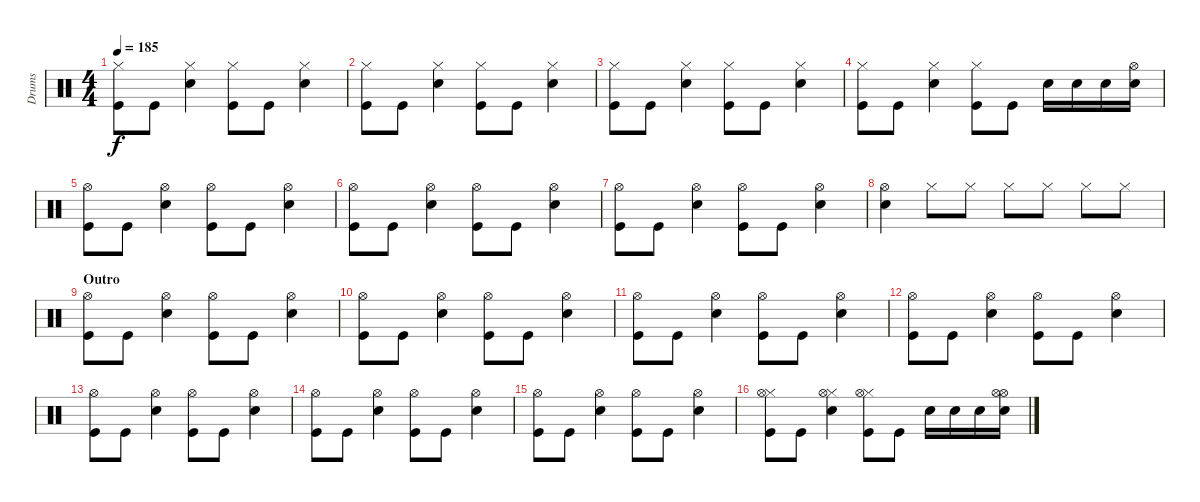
\track ("Drums" "Drums") {instrument percussion}
\staff {score}
\articulation defaults
\ts (4 4)
\tempo 185
\clef neutral
\ks c
("Kick (hit)" "Hi-Hat (closed)").8{dy f} "Kick (hit)".8 ("Electric Snare (hit)" "Hi-Hat (closed)").4 ("Kick (hit)" "Hi-Hat (closed)").8 "Kick (hit)".8 ("Electric Snare (hit)" "Hi-Hat (closed)").4 |
("Kick (hit)" "Hi-Hat (closed)").8 "Kick (hit)".8 ("Electric Snare (hit)" "Hi-Hat (closed)").4 ("Kick (hit)" "Hi-Hat (closed)").8 "Kick (hit)".8 ("Electric Snare (hit)" "Hi-Hat (closed)").4 |
("Kick (hit)" "Hi-Hat (closed)").8 "Kick (hit)".8 ("Electric Snare (hit)" "Hi-Hat (closed)").4 ("Kick (hit)" "Hi-Hat (closed)").8 "Kick (hit)".8 ("Electric Snare (hit)" "Hi-Hat (closed)").4 |
("Kick (hit)" "Hi-Hat (closed)").8 "Kick (hit)".8 ("Electric Snare (hit)" "Hi-Hat (closed)").4 ("Kick (hit)" "Hi-Hat (closed)").8 "Kick (hit)".8 "Electric Snare (hit)".16 "Electric Snare (hit)".16 "Electric Snare (hit)".16 ("Electric Snare (hit)" "Hi-Hat (open)").16 |
("Kick (hit)" "Hi-Hat (open)").8 "Kick (hit)".8 ("Electric Snare (hit)" "Hi-Hat (open)").4 ("Kick (hit)" "Hi-Hat (open)").8 "Kick (hit)".8 ("Electric Snare (hit)" "Hi-Hat (open)").4 |
("Kick (hit)" "Hi-Hat (open)").8 "Kick (hit)".8 ("Electric Snare (hit)" "Hi-Hat (open)").4 ("Kick (hit)" "Hi-Hat (open)").8 "Kick (hit)".8 ("Electric Snare (hit)" "Hi-Hat (open)").4 |
("Kick (hit)" "Hi-Hat (open)").8 "Kick (hit)".8 ("Electric Snare (hit)" "Hi-Hat (open)").4 ("Kick (hit)" "Hi-Hat (open)").8 "Kick (hit)".8 ("Electric Snare (hit)" "Hi-Hat (open)").4 |
("Electric Snare (hit)" "Hi-Hat (open)").4 "Hi-Hat (closed)".8 "Hi-Hat (closed)".8 "Hi-Hat (closed)".8 "Hi-Hat (closed)".8 "Hi-Hat (closed)".8 "Hi-Hat (closed)".8 |
\section ("" "Outro")
("Kick (hit)" "Hi-Hat (open)").8 "Kick (hit)".8 ("Electric Snare (hit)" "Hi-Hat (open)").4 ("Kick (hit)" "Hi-Hat (open)").8 "Kick (hit)".8 ("Electric Snare (hit)" "Hi-Hat (open)").4 |
("Kick (hit)" "Hi-Hat (open)").8 "Kick (hit)".8 ("Electric Snare (hit)" "Hi-Hat (open)").4 ("Kick (hit)" "Hi-Hat (open)").8 "Kick (hit)".8 ("Electric Snare (hit)" "Hi-Hat (open)").4 |
("Kick (hit)" "Hi-Hat (open)").8 "Kick (hit)".8 ("Electric Snare (hit)" "Hi-Hat (open)").4 ("Kick (hit)" "Hi-Hat (open)").8 "Kick (hit)".8 ("Electric Snare (hit)" "Hi-Hat (open)").4 |
("Kick (hit)" "Hi-Hat (open)").8 "Kick (hit)".8 ("Electric Snare (hit)" "Hi-Hat (open)").4 ("Kick (hit)" "Hi-Hat (open)").8 "Kick (hit)".8 ("Electric Snare (hit)" "Hi-Hat (open)").4 |
("Kick (hit)" "Hi-Hat (open)").8 "Kick (hit)".8 ("Electric Snare (hit)" "Hi-Hat (open)").4 ("Kick (hit)" "Hi-Hat (open)").8 "Kick (hit)".8 ("Electric Snare (hit)" "Hi-Hat (open)").4 |
("Kick (hit)" "Hi-Hat (open)").8 "Kick (hit)".8 ("Electric Snare (hit)" "Hi-Hat (open)").4 ("Kick (hit)" "Hi-Hat (open)").8 "Kick (hit)".8 ("Electric Snare (hit)" "Hi-Hat (open)").4 |
("Kick (hit)" "Hi-Hat (open)").8 "Kick (hit)".8 ("Electric Snare (hit)" "Hi-Hat (open)").4 ("Kick (hit)" "Hi-Hat (open)").8 "Kick (hit)".8 ("Electric Snare (hit)" "Hi-Hat (open)").4 |
("Kick (hit)" "Hi-Hat (closed)" "Hi-Hat (open)").8 "Kick (hit)".8 ("Electric Snare (hit)" "Hi-Hat (closed)" "Hi-Hat (open)").4 ("Kick (hit)" "Hi-Hat (closed)" "Hi-Hat (open)").8 "Kick (hit)".8 "Electric Snare (hit)".16 "Electric Snare (hit)".16 "Electric Snare (hit)".16 ("Electric Snare (hit)" "Hi-Hat (open)" "Hi-Hat (open)").16
